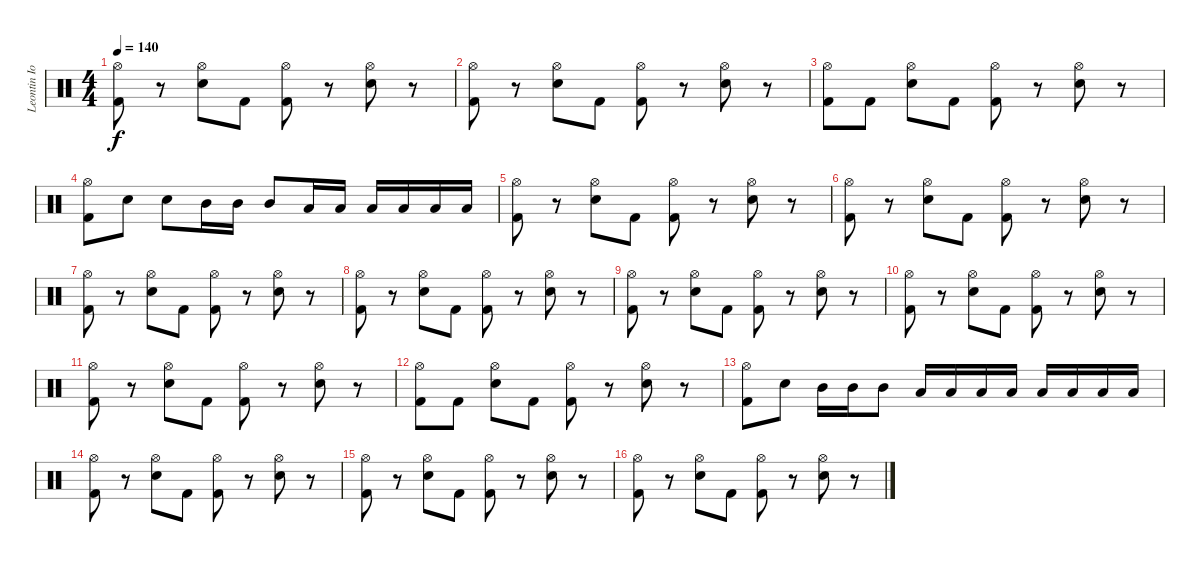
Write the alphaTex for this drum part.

\track ("Leontin Iovan" "Leontin Io") {instrument percussion}
\staff {score}
\articulation defaults
\ts (4 4)
\tempo 140
\clef neutral
\ks c
("Kick (hit) 2" "Hi-Hat (open)").8{dy f} r.8 ("Snare (hit) 2" "Hi-Hat (open)").8 "Kick (hit) 2".8 ("Kick (hit) 2" "Hi-Hat (open)").8 r.8 ("Snare (hit) 2" "Hi-Hat (open)").8 r.8 |
("Kick (hit) 2" "Hi-Hat (open)").8 r.8 ("Snare (hit) 2" "Hi-Hat (open)").8 "Kick (hit) 2".8 ("Kick (hit) 2" "Hi-Hat (open)").8 r.8 ("Snare (hit) 2" "Hi-Hat (open)").8 r.8 |
("Kick (hit) 2" "Hi-Hat (open)").8 "Kick (hit) 2".8 ("Snare (hit) 2" "Hi-Hat (open)").8 "Kick (hit) 2".8 ("Kick (hit) 2" "Hi-Hat (open)").8 r.8 ("Snare (hit) 2" "Hi-Hat (open)").8 r.8 |
("Kick (hit) 2" "Hi-Hat (open)").8 "Snare (hit) 2".8 "Snare (hit) 2".8 "Mid Tom (hit)".16 "Mid Tom (hit)".16 "Mid Tom (hit)".8 "Low Tom (hit)".16 "Low Tom (hit)".16 "Low Tom (hit)".16 "Low Tom (hit)".16 "Low Floor Tom (hit)".16 "Low Floor Tom (hit)".16 |
("Kick (hit) 2" "Hi-Hat (open)").8 r.8 ("Snare (hit) 2" "Hi-Hat (open)").8 "Kick (hit) 2".8 ("Kick (hit) 2" "Hi-Hat (open)").8 r.8 ("Snare (hit) 2" "Hi-Hat (open)").8 r.8 |
("Kick (hit) 2" "Hi-Hat (open)").8 r.8 ("Snare (hit) 2" "Hi-Hat (open)").8 "Kick (hit) 2".8 ("Kick (hit) 2" "Hi-Hat (open)").8 r.8 ("Snare (hit) 2" "Hi-Hat (open)").8 r.8 |
("Kick (hit) 2" "Hi-Hat (open)").8 r.8 ("Snare (hit) 2" "Hi-Hat (open)").8 "Kick (hit) 2".8 ("Kick (hit) 2" "Hi-Hat (open)").8 r.8 ("Snare (hit) 2" "Hi-Hat (open)").8 r.8 |
("Kick (hit) 2" "Hi-Hat (open)").8 r.8 ("Snare (hit) 2" "Hi-Hat (open)").8 "Kick (hit) 2".8 ("Kick (hit) 2" "Hi-Hat (open)").8 r.8 ("Snare (hit) 2" "Hi-Hat (open)").8 r.8 |
("Kick (hit) 2" "Hi-Hat (open)").8 r.8 ("Snare (hit) 2" "Hi-Hat (open)").8 "Kick (hit) 2".8 ("Kick (hit) 2" "Hi-Hat (open)").8 r.8 ("Snare (hit) 2" "Hi-Hat (open)").8 r.8 |
("Kick (hit) 2" "Hi-Hat (open)").8 r.8 ("Snare (hit) 2" "Hi-Hat (open)").8 "Kick (hit) 2".8 ("Kick (hit) 2" "Hi-Hat (open)").8 r.8 ("Snare (hit) 2" "Hi-Hat (open)").8 r.8 |
("Kick (hit) 2" "Hi-Hat (open)").8 r.8 ("Snare (hit) 2" "Hi-Hat (open)").8 "Kick (hit) 2".8 ("Kick (hit) 2" "Hi-Hat (open)").8 r.8 ("Snare (hit) 2" "Hi-Hat (open)").8 r.8 |
("Kick (hit) 2" "Hi-Hat (open)").8 "Kick (hit) 2".8 ("Snare (hit) 2" "Hi-Hat (open)").8 "Kick (hit) 2".8 ("Kick (hit) 2" "Hi-Hat (open)").8 r.8 ("Snare (hit) 2" "Hi-Hat (open)").8 r.8 |
("Kick (hit) 2" "Hi-Hat (open)").8 "Snare (hit) 2".8 "Mid Tom (hit)".16 "Mid Tom (hit)".16 "Mid Tom (hit)".8 "Low Tom (hit)".16 "Low Tom (hit)".16 "Low Tom (hit)".16 "Low Tom (hit)".16 "Low Floor Tom (hit)".16 "Low Floor Tom (hit)".16 "Low Floor Tom (hit)".16 "Low Floor Tom (hit)".16 |
("Kick (hit) 2" "Hi-Hat (open)").8 r.8 ("Snare (hit) 2" "Hi-Hat (open)").8 "Kick (hit) 2".8 ("Kick (hit) 2" "Hi-Hat (open)").8 r.8 ("Snare (hit) 2" "Hi-Hat (open)").8 r.8 |
("Kick (hit) 2" "Hi-Hat (open)").8 r.8 ("Snare (hit) 2" "Hi-Hat (open)").8 "Kick (hit) 2".8 ("Kick (hit) 2" "Hi-Hat (open)").8 r.8 ("Snare (hit) 2" "Hi-Hat (open)").8 r.8 |
("Kick (hit) 2" "Hi-Hat (open)").8 r.8 ("Snare (hit) 2" "Hi-Hat (open)").8 "Kick (hit) 2".8 ("Kick (hit) 2" "Hi-Hat (open)").8 r.8 ("Snare (hit) 2" "Hi-Hat (open)").8 r.8
